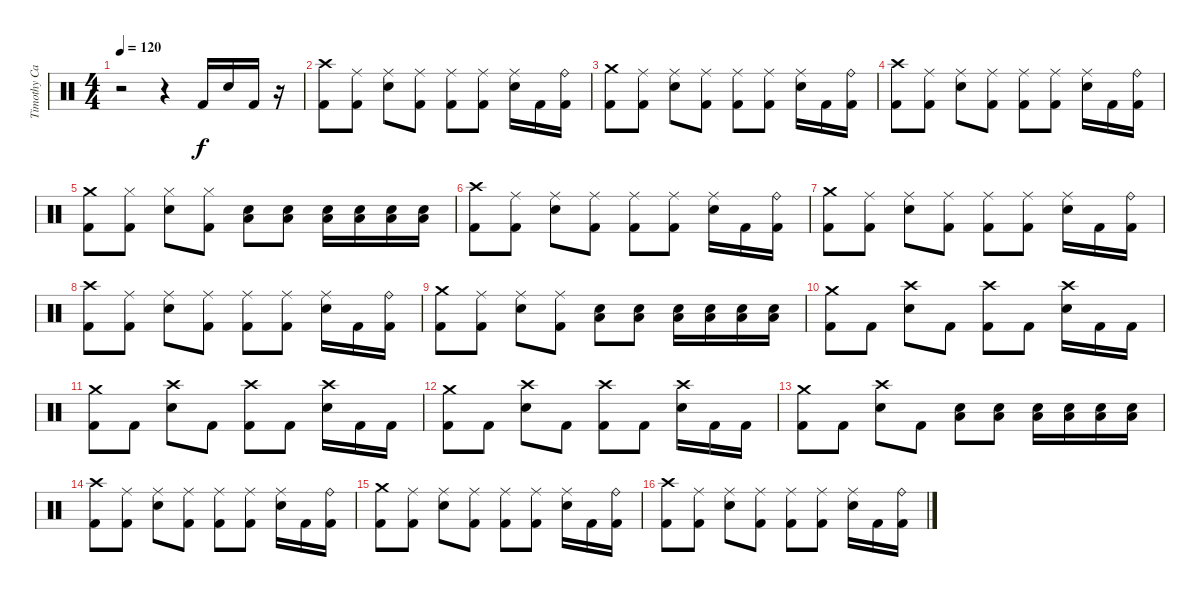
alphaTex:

\track ("Timothy Calkin" "Timothy Ca") {instrument percussion}
\staff {score}
\articulation defaults
\ts (4 4)
\tempo 120
\clef neutral
\ks c
r.2{dy fff} r.4 "Kick (hit) 2".16{dy f} "Snare (hit) 2".16 "Kick (hit) 2".16 r.16 |
("Crash high (hit)" "Kick (hit) 2").8 ("Ride (middle)" "Kick (hit) 2").8 ("Ride (middle)" "Snare (hit) 2").8 ("Ride (middle)" "Kick (hit) 2").8 ("Ride (middle)" "Kick (hit) 2").8 ("Ride (middle)" "Kick (hit) 2").8 ("Ride (middle)" "Snare (hit) 2").16 "Kick (hit) 2".16 ("Ride (bell)" "Kick (hit) 2").16 |
("Crash medium (hit)" "Kick (hit) 2").8 ("Ride (middle)" "Kick (hit) 2").8 ("Ride (middle)" "Snare (hit) 2").8 ("Ride (middle)" "Kick (hit) 2").8 ("Ride (middle)" "Kick (hit) 2").8 ("Ride (middle)" "Kick (hit) 2").8 ("Ride (middle)" "Snare (hit) 2").16 "Kick (hit) 2".16 ("Ride (bell)" "Kick (hit) 2").16 |
("Crash high (hit)" "Kick (hit) 2").8 ("Ride (middle)" "Kick (hit) 2").8 ("Ride (middle)" "Snare (hit) 2").8 ("Ride (middle)" "Kick (hit) 2").8 ("Ride (middle)" "Kick (hit) 2").8 ("Ride (middle)" "Kick (hit) 2").8 ("Ride (middle)" "Snare (hit) 2").16 "Kick (hit) 2".16 ("Ride (bell)" "Kick (hit) 2").16 |
("Crash medium (hit)" "Kick (hit) 2").8 ("Hi-Hat (closed)" "Kick (hit) 2").8 ("Hi-Hat (closed)" "Snare (hit) 2").8 ("Hi-Hat (closed)" "Kick (hit) 2").8 ("Snare (hit) 2" "Low Floor Tom (hit)").8 ("Snare (hit) 2" "Low Floor Tom (hit)").8 ("Snare (hit) 2" "Low Floor Tom (hit)").16 ("Snare (hit) 2" "Low Floor Tom (hit)").16 ("Snare (hit) 2" "Low Floor Tom (hit)").16 ("Snare (hit) 2" "Low Floor Tom (hit)").16 |
("Crash high (hit)" "Kick (hit) 2").8 ("Ride (middle)" "Kick (hit) 2").8 ("Ride (middle)" "Snare (hit) 2").8 ("Ride (middle)" "Kick (hit) 2").8 ("Ride (middle)" "Kick (hit) 2").8 ("Ride (middle)" "Kick (hit) 2").8 ("Ride (middle)" "Snare (hit) 2").16 "Kick (hit) 2".16 ("Ride (bell)" "Kick (hit) 2").16 |
("Crash medium (hit)" "Kick (hit) 2").8 ("Ride (middle)" "Kick (hit) 2").8 ("Ride (middle)" "Snare (hit) 2").8 ("Ride (middle)" "Kick (hit) 2").8 ("Ride (middle)" "Kick (hit) 2").8 ("Ride (middle)" "Kick (hit) 2").8 ("Ride (middle)" "Snare (hit) 2").16 "Kick (hit) 2".16 ("Ride (bell)" "Kick (hit) 2").16 |
("Crash high (hit)" "Kick (hit) 2").8 ("Ride (middle)" "Kick (hit) 2").8 ("Ride (middle)" "Snare (hit) 2").8 ("Ride (middle)" "Kick (hit) 2").8 ("Ride (middle)" "Kick (hit) 2").8 ("Ride (middle)" "Kick (hit) 2").8 ("Ride (middle)" "Snare (hit) 2").16 "Kick (hit) 2".16 ("Ride (bell)" "Kick (hit) 2").16 |
("Crash medium (hit)" "Kick (hit) 2").8 ("Ride (middle)" "Kick (hit) 2").8 ("Ride (middle)" "Snare (hit) 2").8 ("Ride (middle)" "Kick (hit) 2").8 ("Snare (hit) 2" "Low Floor Tom (hit)").8 ("Snare (hit) 2" "Low Floor Tom (hit)").8 ("Snare (hit) 2" "Low Floor Tom (hit)").16 ("Snare (hit) 2" "Low Floor Tom (hit)").16 ("Snare (hit) 2" "Low Floor Tom (hit)").16 ("Snare (hit) 2" "Low Floor Tom (hit)").16 |
("Crash medium (hit)" "Kick (hit) 2").8 "Kick (hit) 2".8 ("Crash high (hit)" "Snare (hit) 2").8 "Kick (hit) 2".8 ("Crash high (hit)" "Kick (hit) 2").8 "Kick (hit) 2".8 ("Crash high (hit)" "Snare (hit) 2").16 "Kick (hit) 2".16 "Kick (hit) 2".16 |
("Crash medium (hit)" "Kick (hit) 2").8 "Kick (hit) 2".8 ("Crash high (hit)" "Snare (hit) 2").8 "Kick (hit) 2".8 ("Crash high (hit)" "Kick (hit) 2").8 "Kick (hit) 2".8 ("Crash high (hit)" "Snare (hit) 2").16 "Kick (hit) 2".16 "Kick (hit) 2".16 |
("Crash medium (hit)" "Kick (hit) 2").8 "Kick (hit) 2".8 ("Crash high (hit)" "Snare (hit) 2").8 "Kick (hit) 2".8 ("Crash high (hit)" "Kick (hit) 2").8 "Kick (hit) 2".8 ("Crash high (hit)" "Snare (hit) 2").16 "Kick (hit) 2".16 "Kick (hit) 2".16 |
("Crash medium (hit)" "Kick (hit) 2").8 "Kick (hit) 2".8 ("Crash high (hit)" "Snare (hit) 2").8 "Kick (hit) 2".8 ("Snare (hit) 2" "Low Floor Tom (hit)").8 ("Snare (hit) 2" "Low Floor Tom (hit)").8 ("Snare (hit) 2" "Low Floor Tom (hit)").16 ("Snare (hit) 2" "Low Floor Tom (hit)").16 ("Snare (hit) 2" "Low Floor Tom (hit)").16 ("Snare (hit) 2" "Low Floor Tom (hit)").16 |
("Crash high (hit)" "Kick (hit) 2").8 ("Ride (middle)" "Kick (hit) 2").8 ("Ride (middle)" "Snare (hit) 2").8 ("Ride (middle)" "Kick (hit) 2").8 ("Ride (middle)" "Kick (hit) 2").8 ("Ride (middle)" "Kick (hit) 2").8 ("Ride (middle)" "Snare (hit) 2").16 "Kick (hit) 2".16 ("Ride (bell)" "Kick (hit) 2").16 |
("Crash medium (hit)" "Kick (hit) 2").8 ("Ride (middle)" "Kick (hit) 2").8 ("Ride (middle)" "Snare (hit) 2").8 ("Ride (middle)" "Kick (hit) 2").8 ("Ride (middle)" "Kick (hit) 2").8 ("Ride (middle)" "Kick (hit) 2").8 ("Ride (middle)" "Snare (hit) 2").16 "Kick (hit) 2".16 ("Ride (bell)" "Kick (hit) 2").16 |
("Crash high (hit)" "Kick (hit) 2").8 ("Ride (middle)" "Kick (hit) 2").8 ("Ride (middle)" "Snare (hit) 2").8 ("Ride (middle)" "Kick (hit) 2").8 ("Ride (middle)" "Kick (hit) 2").8 ("Ride (middle)" "Kick (hit) 2").8 ("Ride (middle)" "Snare (hit) 2").16 "Kick (hit) 2".16 ("Ride (bell)" "Kick (hit) 2").16
